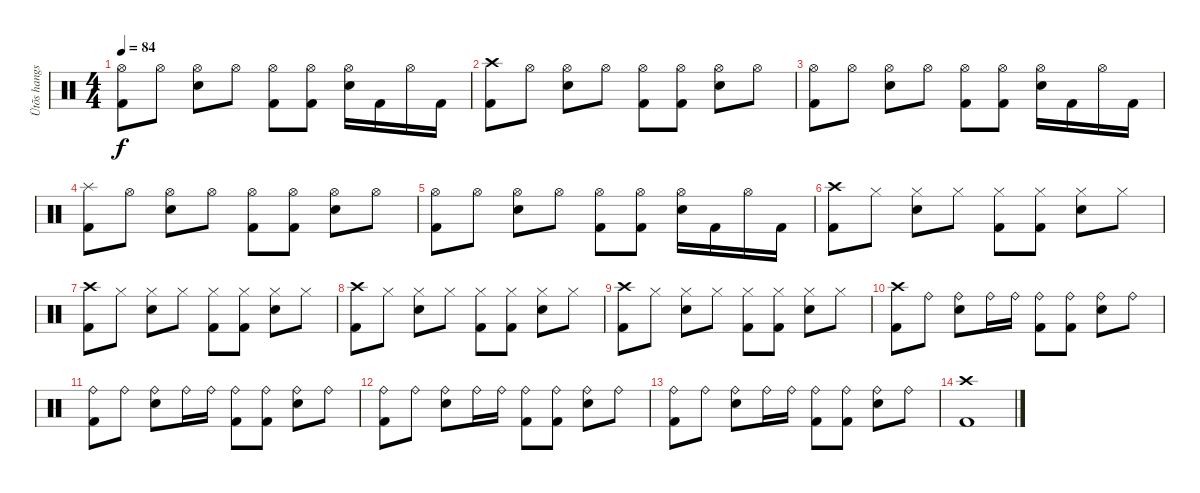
\track ("Ütõs hangszer" "Ütõs hangs") {instrument percussion}
\staff {score}
\articulation defaults
\ts (4 4)
\tempo 84
\clef neutral
\ks c
("Hi-Hat (open)" "Kick (hit) 2").8{dy f} "Hi-Hat (open)".8 ("Hi-Hat (open)" "Snare (hit) 2").8 "Hi-Hat (open)".8 ("Hi-Hat (open)" "Kick (hit) 2").8 ("Hi-Hat (open)" "Kick (hit) 2").8 ("Hi-Hat (open)" "Snare (hit) 2").16 "Kick (hit) 2".16 "Hi-Hat (open)".16 "Kick (hit) 2".16 |
("Crash high (hit)" "Kick (hit) 2").8 "Hi-Hat (open)".8 ("Hi-Hat (open)" "Snare (hit) 2").8 "Hi-Hat (open)".8 ("Hi-Hat (open)" "Kick (hit) 2").8 ("Hi-Hat (open)" "Kick (hit) 2").8 ("Hi-Hat (open)" "Snare (hit) 2").8 "Hi-Hat (open)".8 |
("Hi-Hat (open)" "Kick (hit) 2").8 "Hi-Hat (open)".8 ("Hi-Hat (open)" "Snare (hit) 2").8 "Hi-Hat (open)".8 ("Hi-Hat (open)" "Kick (hit) 2").8 ("Hi-Hat (open)" "Kick (hit) 2").8 ("Hi-Hat (open)" "Snare (hit) 2").16 "Kick (hit) 2".16 "Hi-Hat (open)".16 "Kick (hit) 2".16 |
("Splash (hit)" "Kick (hit) 2").8 "Hi-Hat (open)".8 ("Hi-Hat (open)" "Snare (hit) 2").8 "Hi-Hat (open)".8 ("Hi-Hat (open)" "Kick (hit) 2").8 ("Hi-Hat (open)" "Kick (hit) 2").8 ("Hi-Hat (open)" "Snare (hit) 2").8 "Hi-Hat (open)".8 |
("Hi-Hat (open)" "Kick (hit) 2").8 "Hi-Hat (open)".8 ("Hi-Hat (open)" "Snare (hit) 2").8 "Hi-Hat (open)".8 ("Hi-Hat (open)" "Kick (hit) 2").8 ("Hi-Hat (open)" "Kick (hit) 2").8 ("Hi-Hat (open)" "Snare (hit) 2").16 "Kick (hit) 2".16 "Hi-Hat (open)".16 "Kick (hit) 2".16 |
("Crash high (hit)" "Kick (hit) 2").8 "Hi-Hat (closed)".8 ("Hi-Hat (closed)" "Snare (hit) 2").8 "Hi-Hat (closed)".8 ("Hi-Hat (closed)" "Kick (hit) 2").8 ("Hi-Hat (closed)" "Kick (hit) 2").8 ("Hi-Hat (closed)" "Snare (hit) 2").8 "Hi-Hat (closed)".8 |
("Crash high (hit)" "Kick (hit) 2").8 "Hi-Hat (closed)".8 ("Hi-Hat (closed)" "Snare (hit) 2").8 "Hi-Hat (closed)".8 ("Hi-Hat (closed)" "Kick (hit) 2").8 ("Hi-Hat (closed)" "Kick (hit) 2").8 ("Hi-Hat (closed)" "Snare (hit) 2").8 "Hi-Hat (closed)".8 |
("Crash high (hit)" "Kick (hit) 2").8 "Hi-Hat (closed)".8 ("Hi-Hat (closed)" "Snare (hit) 2").8 "Hi-Hat (closed)".8 ("Hi-Hat (closed)" "Kick (hit) 2").8 ("Hi-Hat (closed)" "Kick (hit) 2").8 ("Hi-Hat (closed)" "Snare (hit) 2").8 "Hi-Hat (closed)".8 |
("Crash high (hit)" "Kick (hit) 2").8 "Hi-Hat (closed)".8 ("Hi-Hat (closed)" "Snare (hit) 2").8 "Hi-Hat (closed)".8 ("Hi-Hat (closed)" "Kick (hit) 2").8 ("Hi-Hat (closed)" "Kick (hit) 2").8 ("Hi-Hat (closed)" "Snare (hit) 2").8 "Hi-Hat (closed)".8 |
("Crash high (hit)" "Kick (hit) 2").8 "Ride (bell)".8 ("Ride (bell)" "Snare (hit) 2").8 "Ride (bell)".16 "Ride (bell)".16 ("Ride (bell)" "Kick (hit) 2").8 ("Ride (bell)" "Kick (hit) 2").8 ("Ride (bell)" "Snare (hit) 2").8 "Ride (bell)".8 |
("Ride (bell)" "Kick (hit) 2").8 "Ride (bell)".8 ("Ride (bell)" "Snare (hit) 2").8 "Ride (bell)".16 "Ride (bell)".16 ("Ride (bell)" "Kick (hit) 2").8 ("Ride (bell)" "Kick (hit) 2").8 ("Ride (bell)" "Snare (hit) 2").8 "Ride (bell)".8 |
("Ride (bell)" "Kick (hit) 2").8 "Ride (bell)".8 ("Ride (bell)" "Snare (hit) 2").8 "Ride (bell)".16 "Ride (bell)".16 ("Ride (bell)" "Kick (hit) 2").8 ("Ride (bell)" "Kick (hit) 2").8 ("Ride (bell)" "Snare (hit) 2").8 "Ride (bell)".8 |
("Ride (bell)" "Kick (hit) 2").8 "Ride (bell)".8 ("Ride (bell)" "Snare (hit) 2").8 "Ride (bell)".16 "Ride (bell)".16 ("Ride (bell)" "Kick (hit) 2").8 ("Ride (bell)" "Kick (hit) 2").8 ("Ride (bell)" "Snare (hit) 2").8 "Ride (bell)".8 |
("Crash high (hit)" "Kick (hit) 2").1
